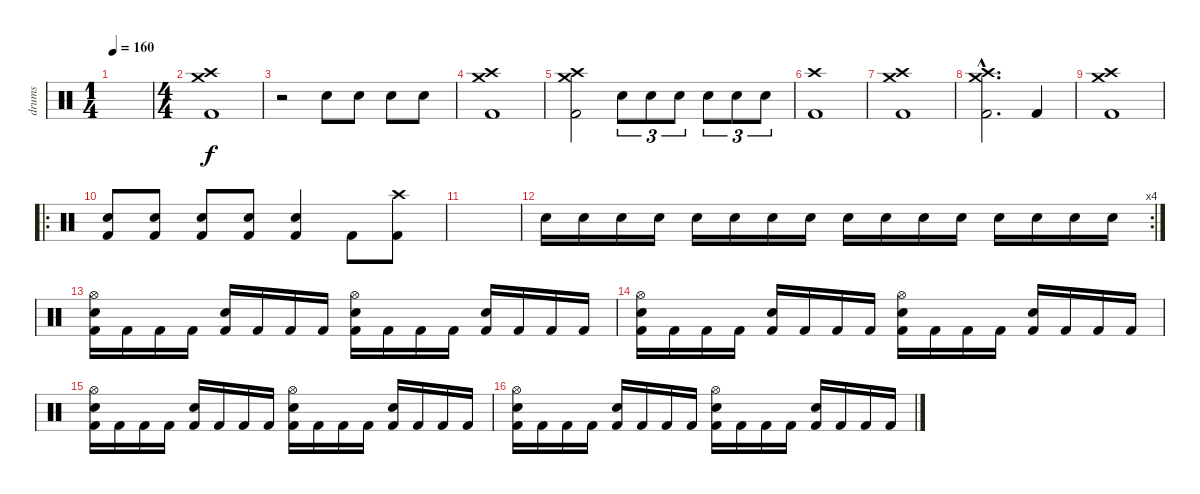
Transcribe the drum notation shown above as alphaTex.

\track ("drums" "drums") {instrument percussion}
\staff {score}
\articulation defaults
\ts (1 4)
\tempo 160
\clef neutral
\ks c
|
\ts (4 4)
("Crash medium (hit)" "Crash high (hit)" "Kick (hit) 2").1 |
r.2 "Electric Snare (hit)".8 "Electric Snare (hit)".8 "Snare (hit) 2".8 "Snare (hit) 2".8 |
("Crash medium (hit)" "Crash high (hit)" "Kick (hit) 2").1 |
("Crash medium (hit)" "Crash high (hit)" "Kick (hit) 2").2 "Electric Snare (hit)".8{tu (3 2)} "Electric Snare (hit)".8{tu (3 2)} "Electric Snare (hit)".8{tu (3 2)} "Snare (hit) 2".8{tu (3 2)} "Snare (hit) 2".8{tu (3 2)} "Snare (hit) 2".8{tu (3 2)} |
("Crash high (hit)" "Kick (hit) 2").1 |
("Crash medium (hit)" "Crash high (hit)" "Kick (hit) 2").1 |
("Crash medium (hit)"{hac} "Crash high (hit)"{hac} "Kick (hit) 2"{hac}).2{d} "Kick (hit) 2".4 |
("Crash medium (hit)" "Crash high (hit)" "Kick (hit) 2").1 |
\ro
("Snare (hit) 2" "Kick (hit) 2").8 ("Snare (hit) 2" "Kick (hit) 2").8 ("Snare (hit) 2" "Kick (hit) 2").8 ("Snare (hit) 2" "Kick (hit) 2").8 ("Snare (hit) 2" "Kick (hit) 2").4 "Kick (hit) 2".8 ("Crash high (hit)" "Kick (hit) 2").8 |
|
\rc 4 "Electric Snare (hit)".16{volume 9} "Electric Snare (hit)".16 "Electric Snare (hit)".16 "Electric Snare (hit)".16 "Snare (hit) 2".16 "Snare (hit) 2".16 "Snare (hit) 2".16 "Snare (hit) 2".16 "Electric Snare (hit)".16 "Electric Snare (hit)".16 "Electric Snare (hit)".16 "Electric Snare (hit)".16 "Snare (hit) 2".16 "Snare (hit) 2".16 "Snare (hit) 2".16 "Snare (hit) 2".16
|
("Hi-Hat (open)" "Electric Snare (hit)" "Kick (hit) 2").16{volume 12} "Kick (hit) 2".16 "Kick (hit) 2".16 "Kick (hit) 2".16 ("Electric Snare (hit)" "Kick (hit) 2").16 "Kick (hit) 2".16 "Kick (hit) 2".16 "Kick (hit) 2".16 ("Hi-Hat (open)" "Electric Snare (hit)" "Kick (hit) 2").16 "Kick (hit) 2".16 "Kick (hit) 2".16 "Kick (hit) 2".16 ("Electric Snare (hit)" "Kick (hit) 2").16 "Kick (hit) 2".16 "Kick (hit) 2".16 "Kick (hit) 2".16 |
("Hi-Hat (open)" "Electric Snare (hit)" "Kick (hit) 2").16 "Kick (hit) 2".16 "Kick (hit) 2".16 "Kick (hit) 2".16 ("Electric Snare (hit)" "Kick (hit) 2").16 "Kick (hit) 2".16 "Kick (hit) 2".16 "Kick (hit) 2".16 ("Hi-Hat (open)" "Electric Snare (hit)" "Kick (hit) 2").16 "Kick (hit) 2".16 "Kick (hit) 2".16 "Kick (hit) 2".16 ("Electric Snare (hit)" "Kick (hit) 2").16 "Kick (hit) 2".16 "Kick (hit) 2".16 "Kick (hit) 2".16 |
("Hi-Hat (open)" "Electric Snare (hit)" "Kick (hit) 2").16 "Kick (hit) 2".16 "Kick (hit) 2".16 "Kick (hit) 2".16 ("Electric Snare (hit)" "Kick (hit) 2").16 "Kick (hit) 2".16 "Kick (hit) 2".16 "Kick (hit) 2".16 ("Hi-Hat (open)" "Electric Snare (hit)" "Kick (hit) 2").16 "Kick (hit) 2".16 "Kick (hit) 2".16 "Kick (hit) 2".16 ("Electric Snare (hit)" "Kick (hit) 2").16 "Kick (hit) 2".16 "Kick (hit) 2".16 "Kick (hit) 2".16 |
("Hi-Hat (open)" "Electric Snare (hit)" "Kick (hit) 2").16 "Kick (hit) 2".16 "Kick (hit) 2".16 "Kick (hit) 2".16 ("Electric Snare (hit)" "Kick (hit) 2").16 "Kick (hit) 2".16 "Kick (hit) 2".16 "Kick (hit) 2".16 ("Hi-Hat (open)" "Electric Snare (hit)" "Kick (hit) 2").16 "Kick (hit) 2".16 "Kick (hit) 2".16 "Kick (hit) 2".16 ("Electric Snare (hit)" "Kick (hit) 2").16 "Kick (hit) 2".16 "Kick (hit) 2".16 "Kick (hit) 2".16
